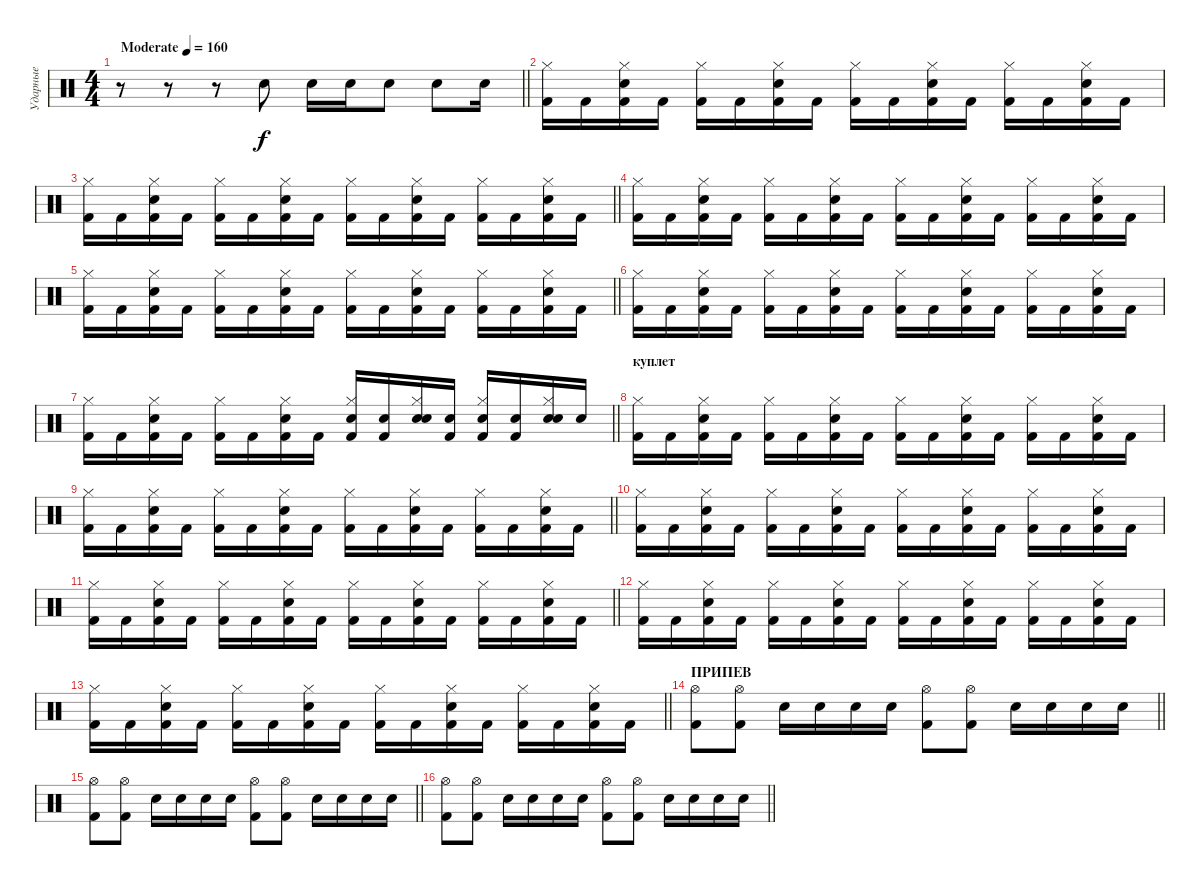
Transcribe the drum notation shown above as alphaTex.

\track ("Ударные" "Ударные") {instrument percussion}
\staff {score}
\articulation defaults
\ts (4 4)
\tempo (160 "Moderate")
\clef neutral
\barLineRight lightlight
\ks c
r.8{dy f} r.8 r.8 "Snare (hit) 2".8 "Snare (hit) 2".16 "Snare (hit) 2".16 "Snare (hit) 2".8 "Snare (hit) 2".8 "Snare (hit) 2".16 |
("Hi-Hat (closed)" "Kick (hit) 2").16 "Kick (hit) 2".16 ("Hi-Hat (closed)" "Kick (hit) 2" "Electric Snare (hit)").16 "Kick (hit) 2".16 ("Hi-Hat (closed)" "Kick (hit) 2").16 "Kick (hit) 2".16 ("Hi-Hat (closed)" "Kick (hit) 2" "Electric Snare (hit)").16 "Kick (hit) 2".16 ("Hi-Hat (closed)" "Kick (hit) 2").16 "Kick (hit) 2".16 ("Hi-Hat (closed)" "Kick (hit) 2" "Electric Snare (hit)").16 "Kick (hit) 2".16 ("Hi-Hat (closed)" "Kick (hit) 2").16 "Kick (hit) 2".16 ("Hi-Hat (closed)" "Kick (hit) 2" "Electric Snare (hit)").16 "Kick (hit) 2".16 |
\barLineRight lightlight
("Hi-Hat (closed)" "Kick (hit) 2").16 "Kick (hit) 2".16 ("Hi-Hat (closed)" "Kick (hit) 2" "Electric Snare (hit)").16 "Kick (hit) 2".16 ("Hi-Hat (closed)" "Kick (hit) 2").16 "Kick (hit) 2".16 ("Hi-Hat (closed)" "Kick (hit) 2" "Electric Snare (hit)").16 "Kick (hit) 2".16 ("Hi-Hat (closed)" "Kick (hit) 2").16 "Kick (hit) 2".16 ("Hi-Hat (closed)" "Kick (hit) 2" "Electric Snare (hit)").16 "Kick (hit) 2".16 ("Hi-Hat (closed)" "Kick (hit) 2").16 "Kick (hit) 2".16 ("Hi-Hat (closed)" "Kick (hit) 2" "Electric Snare (hit)").16 "Kick (hit) 2".16 |
("Hi-Hat (closed)" "Kick (hit) 2").16 "Kick (hit) 2".16 ("Hi-Hat (closed)" "Kick (hit) 2" "Electric Snare (hit)").16 "Kick (hit) 2".16 ("Hi-Hat (closed)" "Kick (hit) 2").16 "Kick (hit) 2".16 ("Hi-Hat (closed)" "Kick (hit) 2" "Electric Snare (hit)").16 "Kick (hit) 2".16 ("Hi-Hat (closed)" "Kick (hit) 2").16 "Kick (hit) 2".16 ("Hi-Hat (closed)" "Kick (hit) 2" "Electric Snare (hit)").16 "Kick (hit) 2".16 ("Hi-Hat (closed)" "Kick (hit) 2").16 "Kick (hit) 2".16 ("Hi-Hat (closed)" "Kick (hit) 2" "Electric Snare (hit)").16 "Kick (hit) 2".16 |
\barLineRight lightlight
("Hi-Hat (closed)" "Kick (hit) 2").16 "Kick (hit) 2".16 ("Hi-Hat (closed)" "Kick (hit) 2" "Electric Snare (hit)").16 "Kick (hit) 2".16 ("Hi-Hat (closed)" "Kick (hit) 2").16 "Kick (hit) 2".16 ("Hi-Hat (closed)" "Kick (hit) 2" "Electric Snare (hit)").16 "Kick (hit) 2".16 ("Hi-Hat (closed)" "Kick (hit) 2").16 "Kick (hit) 2".16 ("Hi-Hat (closed)" "Kick (hit) 2" "Electric Snare (hit)").16 "Kick (hit) 2".16 ("Hi-Hat (closed)" "Kick (hit) 2").16 "Kick (hit) 2".16 ("Hi-Hat (closed)" "Kick (hit) 2" "Electric Snare (hit)").16 "Kick (hit) 2".16 |
("Hi-Hat (closed)" "Kick (hit) 2").16 "Kick (hit) 2".16 ("Hi-Hat (closed)" "Kick (hit) 2" "Electric Snare (hit)").16 "Kick (hit) 2".16 ("Hi-Hat (closed)" "Kick (hit) 2").16 "Kick (hit) 2".16 ("Hi-Hat (closed)" "Kick (hit) 2" "Electric Snare (hit)").16 "Kick (hit) 2".16 ("Hi-Hat (closed)" "Kick (hit) 2").16 "Kick (hit) 2".16 ("Hi-Hat (closed)" "Kick (hit) 2" "Electric Snare (hit)").16 "Kick (hit) 2".16 ("Hi-Hat (closed)" "Kick (hit) 2").16 "Kick (hit) 2".16 ("Hi-Hat (closed)" "Kick (hit) 2" "Electric Snare (hit)").16 "Kick (hit) 2".16 |
\barLineRight lightlight
("Hi-Hat (closed)" "Kick (hit) 2").16 "Kick (hit) 2".16 ("Hi-Hat (closed)" "Kick (hit) 2" "Electric Snare (hit)").16 "Kick (hit) 2".16 ("Hi-Hat (closed)" "Kick (hit) 2").16 "Kick (hit) 2".16 ("Hi-Hat (closed)" "Kick (hit) 2" "Electric Snare (hit)").16 "Kick (hit) 2".16 ("Hi-Hat (closed)" "Snare (hit) 2" "Kick (hit) 2").16 ("Snare (hit) 2" "Kick (hit) 2").16 ("Hi-Hat (closed)" "Snare (hit) 2" "Electric Snare (hit)").16 ("Snare (hit) 2" "Kick (hit) 2").16 ("Hi-Hat (closed)" "Snare (hit) 2" "Kick (hit) 2").16 ("Snare (hit) 2" "Kick (hit) 2").16 ("Hi-Hat (closed)" "Snare (hit) 2" "Electric Snare (hit)").16 "Snare (hit) 2".16 |
\section ("" "куплет")
("Hi-Hat (closed)" "Kick (hit) 2").16 "Kick (hit) 2".16 ("Hi-Hat (closed)" "Kick (hit) 2" "Electric Snare (hit)").16 "Kick (hit) 2".16 ("Hi-Hat (closed)" "Kick (hit) 2").16 "Kick (hit) 2".16 ("Hi-Hat (closed)" "Kick (hit) 2" "Electric Snare (hit)").16 "Kick (hit) 2".16 ("Hi-Hat (closed)" "Kick (hit) 2").16 "Kick (hit) 2".16 ("Hi-Hat (closed)" "Kick (hit) 2" "Electric Snare (hit)").16 "Kick (hit) 2".16 ("Hi-Hat (closed)" "Kick (hit) 2").16 "Kick (hit) 2".16 ("Hi-Hat (closed)" "Kick (hit) 2" "Electric Snare (hit)").16 "Kick (hit) 2".16 |
\barLineRight lightlight
("Hi-Hat (closed)" "Kick (hit) 2").16 "Kick (hit) 2".16 ("Hi-Hat (closed)" "Kick (hit) 2" "Electric Snare (hit)").16 "Kick (hit) 2".16 ("Hi-Hat (closed)" "Kick (hit) 2").16 "Kick (hit) 2".16 ("Hi-Hat (closed)" "Kick (hit) 2" "Electric Snare (hit)").16 "Kick (hit) 2".16 ("Hi-Hat (closed)" "Kick (hit) 2").16 "Kick (hit) 2".16 ("Hi-Hat (closed)" "Kick (hit) 2" "Electric Snare (hit)").16 "Kick (hit) 2".16 ("Hi-Hat (closed)" "Kick (hit) 2").16 "Kick (hit) 2".16 ("Hi-Hat (closed)" "Kick (hit) 2" "Electric Snare (hit)").16 "Kick (hit) 2".16 |
("Hi-Hat (closed)" "Kick (hit) 2").16 "Kick (hit) 2".16 ("Hi-Hat (closed)" "Kick (hit) 2" "Electric Snare (hit)").16 "Kick (hit) 2".16 ("Hi-Hat (closed)" "Kick (hit) 2").16 "Kick (hit) 2".16 ("Hi-Hat (closed)" "Kick (hit) 2" "Electric Snare (hit)").16 "Kick (hit) 2".16 ("Hi-Hat (closed)" "Kick (hit) 2").16 "Kick (hit) 2".16 ("Hi-Hat (closed)" "Kick (hit) 2" "Electric Snare (hit)").16 "Kick (hit) 2".16 ("Hi-Hat (closed)" "Kick (hit) 2").16 "Kick (hit) 2".16 ("Hi-Hat (closed)" "Kick (hit) 2" "Electric Snare (hit)").16 "Kick (hit) 2".16 |
\barLineRight lightlight
("Hi-Hat (closed)" "Kick (hit) 2").16 "Kick (hit) 2".16 ("Hi-Hat (closed)" "Kick (hit) 2" "Electric Snare (hit)").16 "Kick (hit) 2".16 ("Hi-Hat (closed)" "Kick (hit) 2").16 "Kick (hit) 2".16 ("Hi-Hat (closed)" "Kick (hit) 2" "Electric Snare (hit)").16 "Kick (hit) 2".16 ("Hi-Hat (closed)" "Kick (hit) 2").16 "Kick (hit) 2".16 ("Hi-Hat (closed)" "Kick (hit) 2" "Electric Snare (hit)").16 "Kick (hit) 2".16 ("Hi-Hat (closed)" "Kick (hit) 2").16 "Kick (hit) 2".16 ("Hi-Hat (closed)" "Kick (hit) 2" "Electric Snare (hit)").16 "Kick (hit) 2".16 |
("Hi-Hat (closed)" "Kick (hit) 2").16 "Kick (hit) 2".16 ("Hi-Hat (closed)" "Kick (hit) 2" "Electric Snare (hit)").16 "Kick (hit) 2".16 ("Hi-Hat (closed)" "Kick (hit) 2").16 "Kick (hit) 2".16 ("Hi-Hat (closed)" "Kick (hit) 2" "Electric Snare (hit)").16 "Kick (hit) 2".16 ("Hi-Hat (closed)" "Kick (hit) 2").16 "Kick (hit) 2".16 ("Hi-Hat (closed)" "Kick (hit) 2" "Electric Snare (hit)").16 "Kick (hit) 2".16 ("Hi-Hat (closed)" "Kick (hit) 2").16 "Kick (hit) 2".16 ("Hi-Hat (closed)" "Kick (hit) 2" "Electric Snare (hit)").16 "Kick (hit) 2".16 |
\barLineRight lightlight
("Hi-Hat (closed)" "Kick (hit) 2").16 "Kick (hit) 2".16 ("Hi-Hat (closed)" "Kick (hit) 2" "Electric Snare (hit)").16 "Kick (hit) 2".16 ("Hi-Hat (closed)" "Kick (hit) 2").16 "Kick (hit) 2".16 ("Hi-Hat (closed)" "Kick (hit) 2" "Electric Snare (hit)").16 "Kick (hit) 2".16 ("Hi-Hat (closed)" "Kick (hit) 2").16 "Kick (hit) 2".16 ("Hi-Hat (closed)" "Kick (hit) 2" "Electric Snare (hit)").16 "Kick (hit) 2".16 ("Hi-Hat (closed)" "Kick (hit) 2").16 "Kick (hit) 2".16 ("Hi-Hat (closed)" "Kick (hit) 2" "Electric Snare (hit)").16 "Kick (hit) 2".16 |
\section ("" "ПРИПЕВ")
\barLineRight lightlight
("Kick (hit) 2" "Hi-Hat (open)").8 ("Kick (hit) 2" "Hi-Hat (open)").8 "Snare (hit) 2".16 "Snare (hit) 2".16 "Snare (hit) 2".16 "Snare (hit) 2".16 ("Kick (hit) 2" "Hi-Hat (open)").8 ("Kick (hit) 2" "Hi-Hat (open)").8 "Snare (hit) 2".16 "Snare (hit) 2".16 "Snare (hit) 2".16 "Snare (hit) 2".16 |
\barLineRight lightlight
("Kick (hit) 2" "Hi-Hat (open)").8 ("Kick (hit) 2" "Hi-Hat (open)").8 "Snare (hit) 2".16 "Snare (hit) 2".16 "Snare (hit) 2".16 "Snare (hit) 2".16 ("Kick (hit) 2" "Hi-Hat (open)").8 ("Kick (hit) 2" "Hi-Hat (open)").8 "Snare (hit) 2".16 "Snare (hit) 2".16 "Snare (hit) 2".16 "Snare (hit) 2".16 |
\barLineRight lightlight
("Kick (hit) 2" "Hi-Hat (open)").8 ("Kick (hit) 2" "Hi-Hat (open)").8 "Snare (hit) 2".16 "Snare (hit) 2".16 "Snare (hit) 2".16 "Snare (hit) 2".16 ("Kick (hit) 2" "Hi-Hat (open)").8 ("Kick (hit) 2" "Hi-Hat (open)").8 "Snare (hit) 2".16 "Snare (hit) 2".16 "Snare (hit) 2".16 "Snare (hit) 2".16
